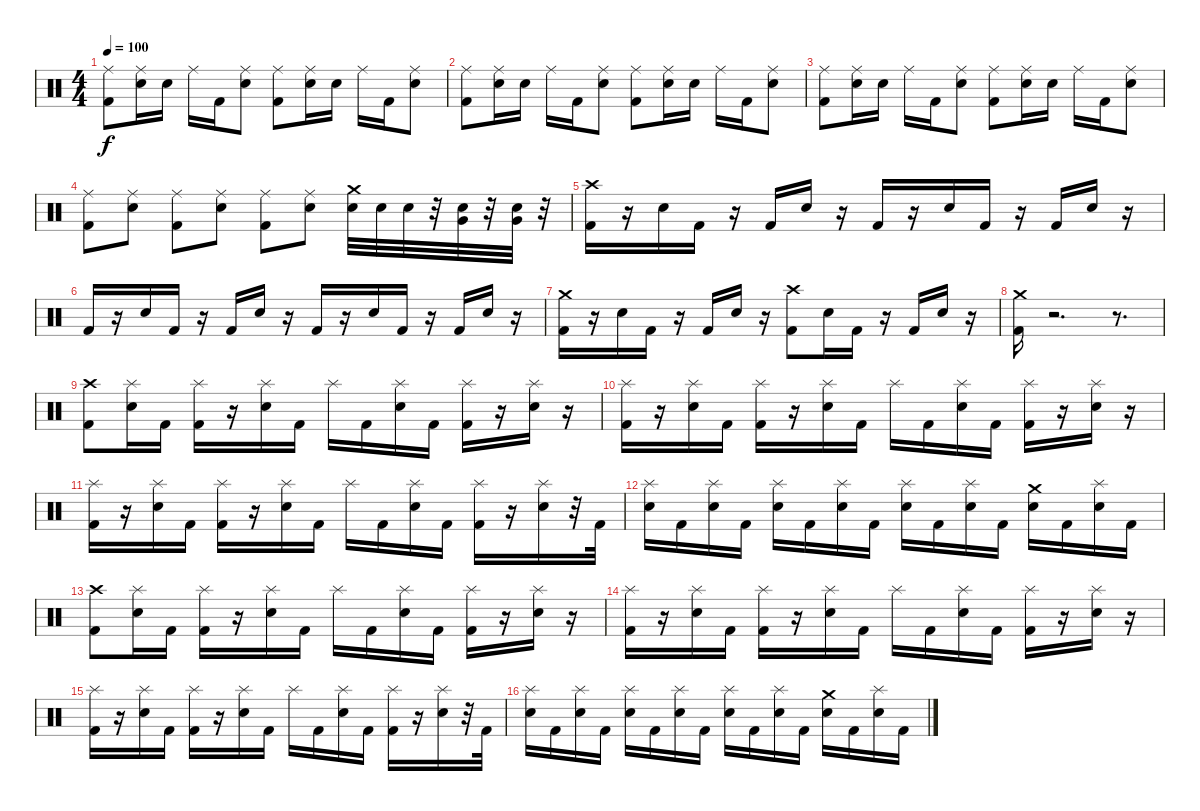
\track "" {instrument percussion}
\staff {score}
\articulation defaults
\ts (4 4)
\tempo 100
\clef neutral
\ks c
("Ride (middle)" "Kick (hit) 2").8{dy f} ("Ride (middle)" "Snare (hit) 2").16 "Snare (hit) 2".16 "Ride (middle)".16 "Kick (hit) 2".16 ("Ride (middle)" "Snare (hit) 2").8 ("Ride (middle)" "Kick (hit) 2").8 ("Ride (middle)" "Snare (hit) 2").16 "Snare (hit) 2".16 "Ride (middle)".16 "Kick (hit) 2".16 ("Ride (middle)" "Snare (hit) 2").8 |
("Ride (middle)" "Kick (hit) 2").8 ("Ride (middle)" "Snare (hit) 2").16 "Snare (hit) 2".16 "Ride (middle)".16 "Kick (hit) 2".16 ("Ride (middle)" "Snare (hit) 2").8 ("Ride (middle)" "Kick (hit) 2").8 ("Ride (middle)" "Snare (hit) 2").16 "Snare (hit) 2".16 "Ride (middle)".16 "Kick (hit) 2".16 ("Ride (middle)" "Snare (hit) 2").8 |
("Ride (middle)" "Kick (hit) 2").8 ("Ride (middle)" "Snare (hit) 2").16 "Snare (hit) 2".16 "Ride (middle)".16 "Kick (hit) 2".16 ("Ride (middle)" "Snare (hit) 2").8 ("Ride (middle)" "Kick (hit) 2").8 ("Ride (middle)" "Snare (hit) 2").16 "Snare (hit) 2".16 "Ride (middle)".16 "Kick (hit) 2".16 ("Ride (middle)" "Snare (hit) 2").8 |
("Ride (middle)" "Kick (hit) 2").8 ("Ride (middle)" "Snare (hit) 2").8 ("Ride (middle)" "Kick (hit) 2").8 ("Ride (middle)" "Snare (hit) 2").8 ("Ride (middle)" "Kick (hit) 2").8 ("Ride (middle)" "Snare (hit) 2").8 ("Crash medium (hit)" "Snare (hit) 2").32 "Snare (hit) 2".32 "Snare (hit) 2".32 r.32 ("Very Low Tom (hit)" "Snare (hit) 2").32 r.32 ("Very Low Tom (hit)" "Snare (hit) 2").32 r.32 |
("Kick (hit) 2" "Crash high (hit)").16 r.16 "Snare (hit) 2".16 "Kick (hit) 2".16 r.16 "Kick (hit) 2".16 "Snare (hit) 2".16 r.16 "Kick (hit) 2".16 r.16 "Snare (hit) 2".16 "Kick (hit) 2".16 r.16 "Kick (hit) 2".16 "Snare (hit) 2".16 r.16 |
"Kick (hit) 2".16 r.16 "Snare (hit) 2".16 "Kick (hit) 2".16 r.16 "Kick (hit) 2".16 "Snare (hit) 2".16 r.16 "Kick (hit) 2".16 r.16 "Snare (hit) 2".16 "Kick (hit) 2".16 r.16 "Kick (hit) 2".16 "Snare (hit) 2".16 r.16 |
("Crash medium (hit)" "Kick (hit) 2").16 r.16 "Snare (hit) 2".16 "Kick (hit) 2".16 r.16 "Kick (hit) 2".16 "Snare (hit) 2".16 r.16 ("Crash high (hit)" "Kick (hit) 2").8 "Snare (hit) 2".16 "Kick (hit) 2".16 r.16 "Kick (hit) 2".16 "Snare (hit) 2".16 r.16 |
("Crash medium (hit)" "Kick (hit) 2").16 r.2{d} r.8{d} |
("Kick (hit) 2" "Crash high (hit)").8 ("Splash (hit)" "Snare (hit) 2").16 "Kick (hit) 2".16 ("Splash (hit)" "Kick (hit) 2").16 r.16 ("Splash (hit)" "Snare (hit) 2").16 "Kick (hit) 2".16 "Splash (hit)".16 "Kick (hit) 2".16 ("Splash (hit)" "Snare (hit) 2").16 "Kick (hit) 2".16 ("Splash (hit)" "Kick (hit) 2").16 r.16 ("Splash (hit)" "Snare (hit) 2").16 r.16 |
("Splash (hit)" "Kick (hit) 2").16 r.16 ("Splash (hit)" "Snare (hit) 2").16 "Kick (hit) 2".16 ("Splash (hit)" "Kick (hit) 2").16 r.16 ("Splash (hit)" "Snare (hit) 2").16 "Kick (hit) 2".16 "Splash (hit)".16 "Kick (hit) 2".16 ("Splash (hit)" "Snare (hit) 2").16 "Kick (hit) 2".16 ("Splash (hit)" "Kick (hit) 2").16 r.16 ("Splash (hit)" "Snare (hit) 2").16 r.16 |
("Splash (hit)" "Kick (hit) 2").16 r.16 ("Splash (hit)" "Snare (hit) 2").16 "Kick (hit) 2".16 ("Splash (hit)" "Kick (hit) 2").16 r.16 ("Splash (hit)" "Snare (hit) 2").16 "Kick (hit) 2".16 "Splash (hit)".16 "Kick (hit) 2".16 ("Splash (hit)" "Snare (hit) 2").16 "Kick (hit) 2".16 ("Splash (hit)" "Kick (hit) 2").16 r.16 ("Splash (hit)" "Snare (hit) 2").16 r.32 "Kick (hit) 2".32 |
("Splash (hit)" "Snare (hit) 2").16 "Kick (hit) 2".16 ("Splash (hit)" "Snare (hit) 2").16 "Kick (hit) 2".16 ("Splash (hit)" "Snare (hit) 2").16 "Kick (hit) 2".16 ("Splash (hit)" "Snare (hit) 2").16 "Kick (hit) 2".16 ("Splash (hit)" "Snare (hit) 2").16 "Kick (hit) 2".16 ("Splash (hit)" "Snare (hit) 2").16 "Kick (hit) 2".16 ("Crash medium (hit)" "Snare (hit) 2").16 "Kick (hit) 2".16 ("Splash (hit)" "Snare (hit) 2").16 "Kick (hit) 2".16 |
("Kick (hit) 2" "Crash high (hit)").8 ("Splash (hit)" "Snare (hit) 2").16 "Kick (hit) 2".16 ("Splash (hit)" "Kick (hit) 2").16 r.16 ("Splash (hit)" "Snare (hit) 2").16 "Kick (hit) 2".16 "Splash (hit)".16 "Kick (hit) 2".16 ("Splash (hit)" "Snare (hit) 2").16 "Kick (hit) 2".16 ("Splash (hit)" "Kick (hit) 2").16 r.16 ("Splash (hit)" "Snare (hit) 2").16 r.16 |
("Splash (hit)" "Kick (hit) 2").16 r.16 ("Splash (hit)" "Snare (hit) 2").16 "Kick (hit) 2".16 ("Splash (hit)" "Kick (hit) 2").16 r.16 ("Splash (hit)" "Snare (hit) 2").16 "Kick (hit) 2".16 "Splash (hit)".16 "Kick (hit) 2".16 ("Splash (hit)" "Snare (hit) 2").16 "Kick (hit) 2".16 ("Splash (hit)" "Kick (hit) 2").16 r.16 ("Splash (hit)" "Snare (hit) 2").16 r.16 |
("Splash (hit)" "Kick (hit) 2").16 r.16 ("Splash (hit)" "Snare (hit) 2").16 "Kick (hit) 2".16 ("Splash (hit)" "Kick (hit) 2").16 r.16 ("Splash (hit)" "Snare (hit) 2").16 "Kick (hit) 2".16 "Splash (hit)".16 "Kick (hit) 2".16 ("Splash (hit)" "Snare (hit) 2").16 "Kick (hit) 2".16 ("Splash (hit)" "Kick (hit) 2").16 r.16 ("Splash (hit)" "Snare (hit) 2").16 r.32 "Kick (hit) 2".32 |
("Splash (hit)" "Snare (hit) 2").16 "Kick (hit) 2".16 ("Splash (hit)" "Snare (hit) 2").16 "Kick (hit) 2".16 ("Splash (hit)" "Snare (hit) 2").16 "Kick (hit) 2".16 ("Splash (hit)" "Snare (hit) 2").16 "Kick (hit) 2".16 ("Splash (hit)" "Snare (hit) 2").16 "Kick (hit) 2".16 ("Splash (hit)" "Snare (hit) 2").16 "Kick (hit) 2".16 ("Crash medium (hit)" "Snare (hit) 2").16 "Kick (hit) 2".16 ("Splash (hit)" "Snare (hit) 2").16 "Kick (hit) 2".16
